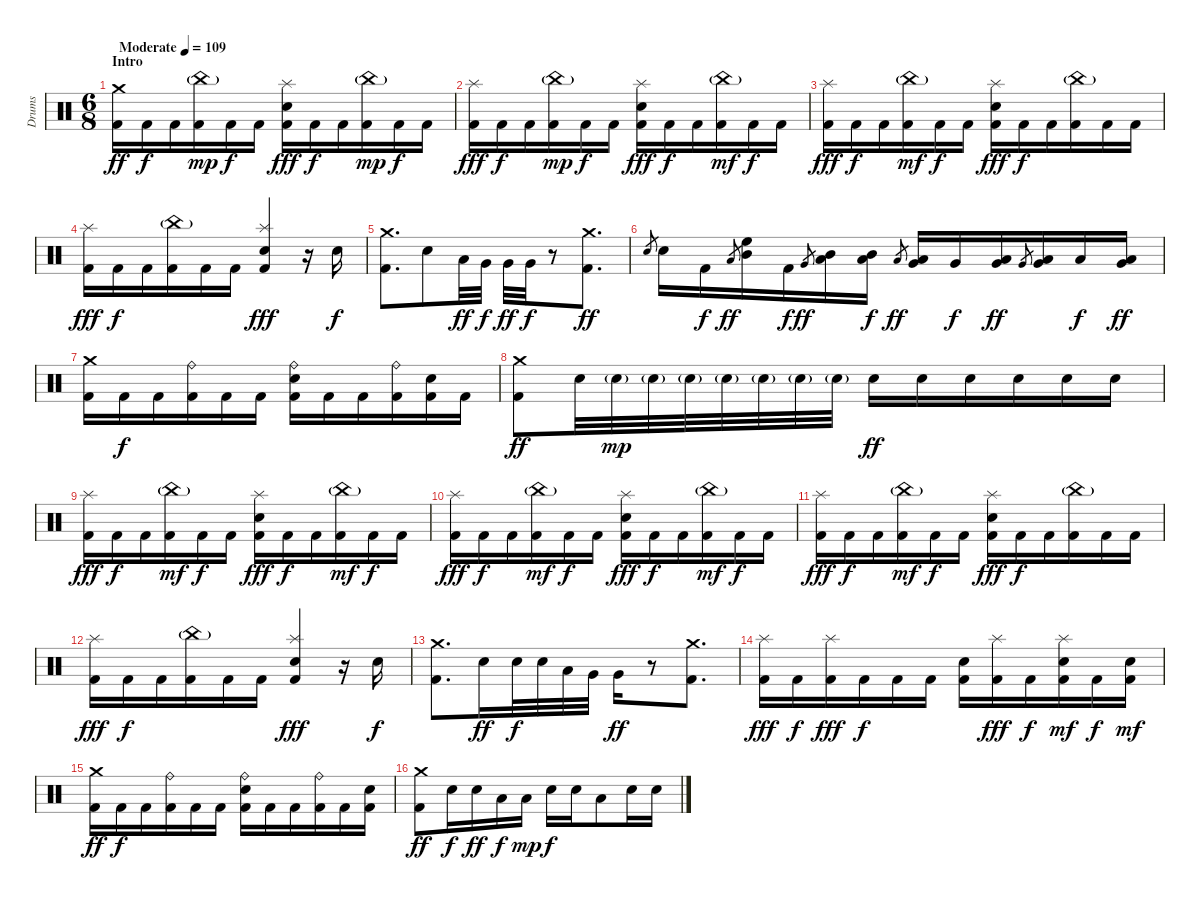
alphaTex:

\track ("Drums" "Drums") {instrument percussion}
\staff {score}
\articulation defaults
\ts (6 8)
\section ("" "Intro")
\tempo (109 "Moderate")
\clef neutral
\ks c
("Crash medium (hit)" "Kick (hit) 2").16{dy ff} "Kick (hit) 2".16{dy f} "Kick (hit) 2".16 ("China (hit)"{g} "Kick (hit) 2").16{dy mp} "Kick (hit) 2".16{dy f} "Kick (hit) 2".16 ("Splash (hit)" "Electric Snare (hit)" "Kick (hit) 2").16{dy fff} "Kick (hit) 2".16{dy f} "Kick (hit) 2".16 ("China (hit)"{g} "Kick (hit) 2").16{dy mp} "Kick (hit) 2".16{dy f} "Kick (hit) 2".16 |
("Splash (hit)" "Kick (hit) 2").16{dy fff} "Kick (hit) 2".16{dy f} "Kick (hit) 2".16 ("China (hit)"{g} "Kick (hit) 2").16{dy mp} "Kick (hit) 2".16{dy f} "Kick (hit) 2".16 ("Splash (hit)" "Electric Snare (hit)" "Kick (hit) 2").16{dy fff} "Kick (hit) 2".16{dy f} "Kick (hit) 2".16 ("China (hit)"{g} "Kick (hit) 2").16{dy mf} "Kick (hit) 2".16{dy f} "Kick (hit) 2".16 |
("Splash (hit)" "Kick (hit) 2").16{dy fff} "Kick (hit) 2".16{dy f} "Kick (hit) 2".16 ("China (hit)"{g} "Kick (hit) 2").16{dy mf} "Kick (hit) 2".16{dy f} "Kick (hit) 2".16 ("Splash (hit)" "Electric Snare (hit)" "Kick (hit) 2").16{dy fff} "Kick (hit) 2".16{dy f} "Kick (hit) 2".16 ("China (hit)"{g} "Kick (hit) 2").16 "Kick (hit) 2".16 "Kick (hit) 2".16 |
("Splash (hit)" "Kick (hit) 2").16{dy fff} "Kick (hit) 2".16{dy f} "Kick (hit) 2".16 ("China (hit)"{g} "Kick (hit) 2").16 "Kick (hit) 2".16 "Kick (hit) 2".16 ("Splash (hit)" "Electric Snare (hit)" "Kick (hit) 2").4{dy fff} r.16 "Electric Snare (hit)".16{dy f} |
("Crash medium (hit)" "Kick (hit) 2").8{d} "Electric Snare (hit)".8 "Low Tom (hit)".32{dy ff} "Very Low Tom (hit)".32{dy f} "Very Low Tom (hit)".32{dy ff} "Very Low Tom (hit)".32{dy f} r.8 ("Crash medium (hit)" "Kick (hit) 2").8{d dy ff} |
"Electric Snare (hit)".8{gr} "Electric Snare (hit)".16 "Kick (hit) 2".16{dy f} "Low Tom (hit)".8{gr dy ff} ("High Floor Tom (hit)" "Mid Tom (hit)").16 "Kick (hit) 2".16{dy f} "Very Low Tom (hit)".8{gr dy ff} ("Mid Tom (hit)" "Low Tom (hit)").16 ("Mid Tom (hit)" "Low Tom (hit)").16{dy f} "Low Tom (hit)".8{gr dy ff} ("Low Tom (hit)" "Very Low Tom (hit)").16 "Very Low Tom (hit)".16{dy f} ("Low Tom (hit)" "Very Low Tom (hit)").16{dy ff} "Very Low Tom (hit)".8{gr} ("Very Low Tom (hit)" "Low Floor Tom (hit)").16 "Low Floor Tom (hit)".16{dy f} ("Very Low Tom (hit)" "Low Floor Tom (hit)").16{dy ff} |
("Crash medium (hit)" "Kick (hit) 2").16 "Kick (hit) 2".16{dy f} "Kick (hit) 2".16 ("Ride (bell)" "Kick (hit) 2").16 "Kick (hit) 2".16 "Kick (hit) 2".16 ("Ride (bell)" "Electric Snare (hit)" "Kick (hit) 2").16 "Kick (hit) 2".16 "Kick (hit) 2".16 ("Ride (bell)" "Kick (hit) 2").16 ("Electric Snare (hit)" "Kick (hit) 2").16 "Kick (hit) 2".16 |
("Crash medium (hit)" "Kick (hit) 2").8{dy ff} "Electric Snare (hit)".32 "Electric Snare (hit)"{g}.32{dy mp} "Electric Snare (hit)"{g}.32 "Electric Snare (hit)"{g}.32 "Electric Snare (hit)"{g}.32 "Electric Snare (hit)"{g}.32 "Electric Snare (hit)"{g}.32 "Electric Snare (hit)"{g}.32 "Electric Snare (hit)".16{dy ff} "Electric Snare (hit)".16 "Electric Snare (hit)".16 "Electric Snare (hit)".16 "Electric Snare (hit)".16 "Electric Snare (hit)".16 |
("Splash (hit)" "Kick (hit) 2").16{dy fff} "Kick (hit) 2".16{dy f} "Kick (hit) 2".16 ("China (hit)"{g} "Kick (hit) 2").16{dy mf} "Kick (hit) 2".16{dy f} "Kick (hit) 2".16 ("Splash (hit)" "Electric Snare (hit)" "Kick (hit) 2").16{dy fff} "Kick (hit) 2".16{dy f} "Kick (hit) 2".16 ("China (hit)"{g} "Kick (hit) 2").16{dy mf} "Kick (hit) 2".16{dy f} "Kick (hit) 2".16 |
("Splash (hit)" "Kick (hit) 2").16{dy fff} "Kick (hit) 2".16{dy f} "Kick (hit) 2".16 ("China (hit)"{g} "Kick (hit) 2").16{dy mf} "Kick (hit) 2".16{dy f} "Kick (hit) 2".16 ("Splash (hit)" "Electric Snare (hit)" "Kick (hit) 2").16{dy fff} "Kick (hit) 2".16{dy f} "Kick (hit) 2".16 ("China (hit)"{g} "Kick (hit) 2").16{dy mf} "Kick (hit) 2".16{dy f} "Kick (hit) 2".16 |
("Splash (hit)" "Kick (hit) 2").16{dy fff} "Kick (hit) 2".16{dy f} "Kick (hit) 2".16 ("China (hit)"{g} "Kick (hit) 2").16{dy mf} "Kick (hit) 2".16{dy f} "Kick (hit) 2".16 ("Splash (hit)" "Electric Snare (hit)" "Kick (hit) 2").16{dy fff} "Kick (hit) 2".16{dy f} "Kick (hit) 2".16 ("China (hit)"{g} "Kick (hit) 2").16 "Kick (hit) 2".16 "Kick (hit) 2".16 |
("Splash (hit)" "Kick (hit) 2").16{dy fff} "Kick (hit) 2".16{dy f} "Kick (hit) 2".16 ("China (hit)"{g} "Kick (hit) 2").16 "Kick (hit) 2".16 "Kick (hit) 2".16 ("Splash (hit)" "Electric Snare (hit)" "Kick (hit) 2").4{dy fff} r.16 "Electric Snare (hit)".16{dy f} |
("Crash medium (hit)" "Kick (hit) 2").8{d} "Electric Snare (hit)".16{dy ff} "Electric Snare (hit)".32{dy f} "Electric Snare (hit)".32 "Low Tom (hit)".32 "Very Low Tom (hit)".32 "Very Low Tom (hit)".16{dy ff} r.8 ("Crash medium (hit)" "Kick (hit) 2").8{d} |
("Splash (hit)" "Kick (hit) 2").16{dy fff} "Kick (hit) 2".16{dy f} ("Splash (hit)" "Kick (hit) 2").16{dy fff} "Kick (hit) 2".16{dy f} "Kick (hit) 2".16 "Kick (hit) 2".16 ("Electric Snare (hit)" "Kick (hit) 2").16 ("Splash (hit)" "Kick (hit) 2").16{dy fff} "Kick (hit) 2".16{dy f} ("Splash (hit)" "Electric Snare (hit)" "Kick (hit) 2").16{dy mf} "Kick (hit) 2".16{dy f} ("Electric Snare (hit)" "Kick (hit) 2").16{dy mf} |
("Crash medium (hit)" "Kick (hit) 2").16{dy ff} "Kick (hit) 2".16{dy f} "Kick (hit) 2".16 ("Ride (bell)" "Kick (hit) 2").16 "Kick (hit) 2".16 "Kick (hit) 2".16 ("Ride (bell)" "Electric Snare (hit)" "Kick (hit) 2").16 "Kick (hit) 2".16 "Kick (hit) 2".16 ("Ride (bell)" "Kick (hit) 2").16 "Kick (hit) 2".16 ("Electric Snare (hit)" "Kick (hit) 2").16 |
("Crash medium (hit)" "Kick (hit) 2").8{dy ff} "Electric Snare (hit)".16{dy f} "Electric Snare (hit)".16{dy ff} "Low Tom (hit)".16{dy f} "Low Tom (hit)".16{dy mp} "Electric Snare (hit)".16{dy f} "Electric Snare (hit)".16 "Low Tom (hit)".8 "Electric Snare (hit)".16 "Electric Snare (hit)".16
